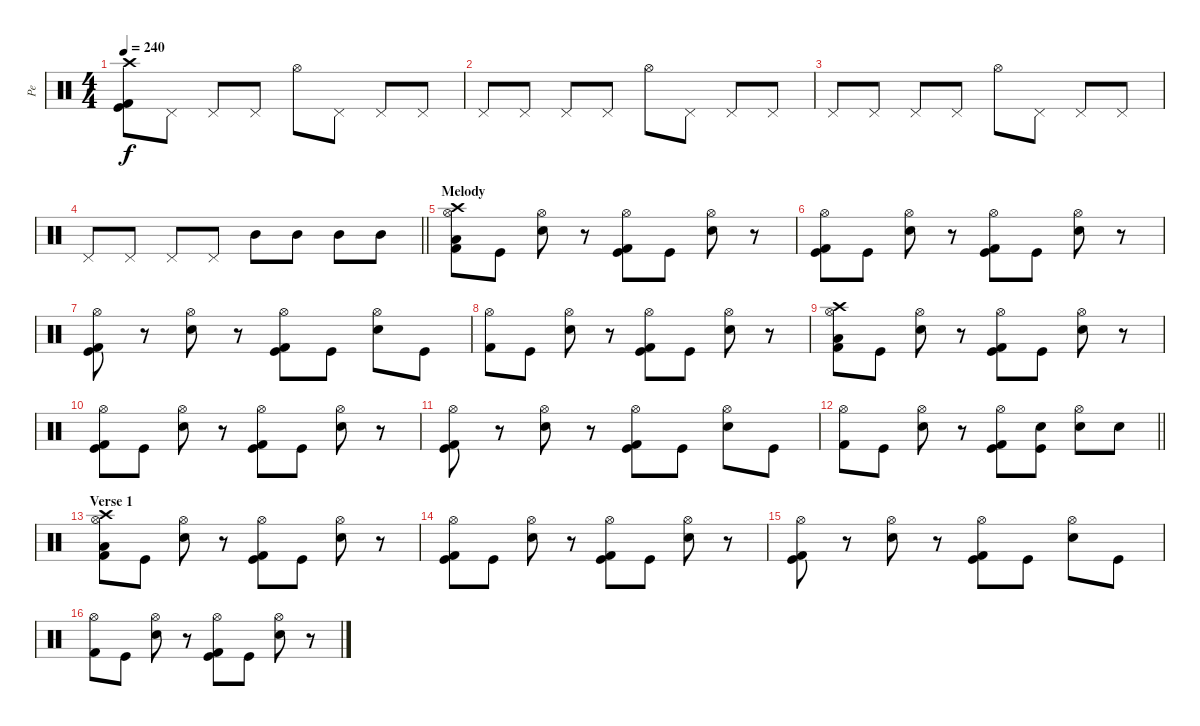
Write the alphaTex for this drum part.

\track ("Pe" "Pe") {instrument percussion}
\staff {score}
\articulation defaults
\ts (4 4)
\tempo 240
\clef neutral
\ks c
("Crash high (hit)" "Kick (hit)" "Kick (hit) 2").8{dy f} "Pedal Hi-Hat (hit)".8 "Pedal Hi-Hat (hit)".8 "Pedal Hi-Hat (hit)".8 "Hi-Hat (open)".8 "Pedal Hi-Hat (hit)".8 "Pedal Hi-Hat (hit)".8 "Pedal Hi-Hat (hit)".8 |
"Pedal Hi-Hat (hit)".8 "Pedal Hi-Hat (hit)".8 "Pedal Hi-Hat (hit)".8 "Pedal Hi-Hat (hit)".8 "Hi-Hat (open)".8 "Pedal Hi-Hat (hit)".8 "Pedal Hi-Hat (hit)".8 "Pedal Hi-Hat (hit)".8 |
"Pedal Hi-Hat (hit)".8 "Pedal Hi-Hat (hit)".8 "Pedal Hi-Hat (hit)".8 "Pedal Hi-Hat (hit)".8 "Hi-Hat (open)".8 "Pedal Hi-Hat (hit)".8 "Pedal Hi-Hat (hit)".8 "Pedal Hi-Hat (hit)".8 |
\barLineRight lightlight "Pedal Hi-Hat (hit)".8 "Pedal Hi-Hat (hit)".8 "Pedal Hi-Hat (hit)".8 "Pedal Hi-Hat (hit)".8 "Mid Tom (hit)".8 "Mid Tom (hit)".8 "Mid Tom (hit)".8 "Mid Tom (hit)".8
|
\section ("" "Melody")
("Low Tom (hit)" "Hi-Hat (open)" "Kick (hit) 2" "Crash high (hit)").8 "Kick (hit)".8 ("Electric Snare (hit)" "Hi-Hat (open)").8 r.8 ("Kick (hit)" "Hi-Hat (open)" "Kick (hit) 2").8 "Kick (hit)".8 ("Electric Snare (hit)" "Hi-Hat (open)").8 r.8 |
("Kick (hit)" "Hi-Hat (open)" "Kick (hit) 2").8 "Kick (hit)".8 ("Electric Snare (hit)" "Hi-Hat (open)").8 r.8 ("Kick (hit)" "Hi-Hat (open)" "Kick (hit) 2").8 "Kick (hit)".8 ("Electric Snare (hit)" "Hi-Hat (open)").8 r.8 |
("Kick (hit)" "Hi-Hat (open)" "Kick (hit) 2").8 r.8 ("Electric Snare (hit)" "Hi-Hat (open)").8 r.8 ("Kick (hit)" "Hi-Hat (open)" "Kick (hit) 2").8 "Kick (hit)".8 ("Electric Snare (hit)" "Hi-Hat (open)").8 "Kick (hit)".8 |
("Hi-Hat (open)" "Kick (hit) 2").8 "Kick (hit)".8 ("Electric Snare (hit)" "Hi-Hat (open)").8 r.8 ("Kick (hit)" "Hi-Hat (open)" "Kick (hit) 2").8 "Kick (hit)".8 ("Electric Snare (hit)" "Hi-Hat (open)").8 r.8 |
("Low Tom (hit)" "Hi-Hat (open)" "Kick (hit) 2" "Crash high (hit)").8 "Kick (hit)".8 ("Electric Snare (hit)" "Hi-Hat (open)").8 r.8 ("Kick (hit)" "Hi-Hat (open)" "Kick (hit) 2").8 "Kick (hit)".8 ("Electric Snare (hit)" "Hi-Hat (open)").8 r.8 |
("Kick (hit)" "Hi-Hat (open)" "Kick (hit) 2").8 "Kick (hit)".8 ("Electric Snare (hit)" "Hi-Hat (open)").8 r.8 ("Kick (hit)" "Hi-Hat (open)" "Kick (hit) 2").8 "Kick (hit)".8 ("Electric Snare (hit)" "Hi-Hat (open)").8 r.8 |
("Kick (hit)" "Hi-Hat (open)" "Kick (hit) 2").8 r.8 ("Electric Snare (hit)" "Hi-Hat (open)").8 r.8 ("Kick (hit)" "Hi-Hat (open)" "Kick (hit) 2").8 "Kick (hit)".8 ("Electric Snare (hit)" "Hi-Hat (open)").8 "Kick (hit)".8 |
\barLineRight lightlight
("Hi-Hat (open)" "Kick (hit) 2").8 "Kick (hit)".8 ("Electric Snare (hit)" "Hi-Hat (open)").8 r.8 ("Kick (hit)" "Hi-Hat (open)" "Kick (hit) 2").8 ("Electric Snare (hit)" "Kick (hit)").8 ("Electric Snare (hit)" "Hi-Hat (open)").8 "Electric Snare (hit)".8 |
\section ("" "Verse 1")
("Low Tom (hit)" "Hi-Hat (open)" "Kick (hit) 2" "Crash high (hit)").8 "Kick (hit)".8 ("Electric Snare (hit)" "Hi-Hat (open)").8 r.8 ("Kick (hit)" "Hi-Hat (open)" "Kick (hit) 2").8 "Kick (hit)".8 ("Electric Snare (hit)" "Hi-Hat (open)").8 r.8 |
("Kick (hit)" "Hi-Hat (open)" "Kick (hit) 2").8 "Kick (hit)".8 ("Electric Snare (hit)" "Hi-Hat (open)").8 r.8 ("Kick (hit)" "Hi-Hat (open)" "Kick (hit) 2").8 "Kick (hit)".8 ("Electric Snare (hit)" "Hi-Hat (open)").8 r.8 |
("Kick (hit)" "Hi-Hat (open)" "Kick (hit) 2").8 r.8 ("Electric Snare (hit)" "Hi-Hat (open)").8 r.8 ("Kick (hit)" "Hi-Hat (open)" "Kick (hit) 2").8 "Kick (hit)".8 ("Electric Snare (hit)" "Hi-Hat (open)").8 "Kick (hit)".8 |
("Hi-Hat (open)" "Kick (hit) 2").8 "Kick (hit)".8 ("Electric Snare (hit)" "Hi-Hat (open)").8 r.8 ("Kick (hit)" "Hi-Hat (open)" "Kick (hit) 2").8 "Kick (hit)".8 ("Electric Snare (hit)" "Hi-Hat (open)").8 r.8
